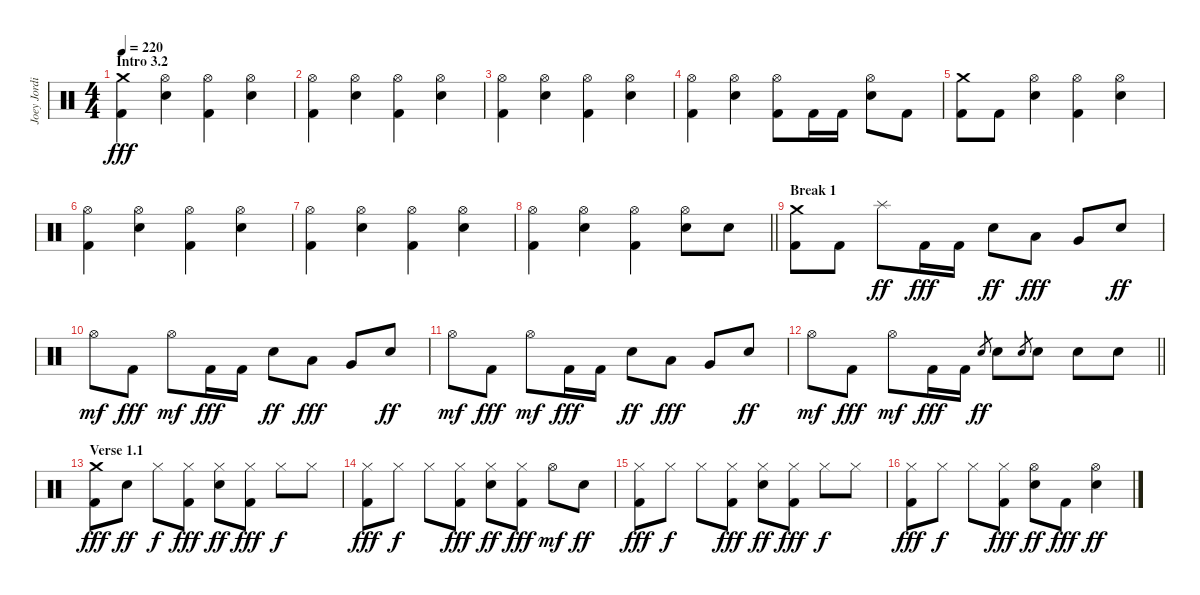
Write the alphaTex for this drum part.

\track ("Joey Jordison" "Joey Jordi") {instrument percussion}
\staff {score}
\articulation defaults
\ts (4 4)
\section ("" "Intro 3.2")
\tempo 220
\clef neutral
\ks c
("Crash medium (hit)" "Kick (hit) 2").4{dy fff} ("Hi-Hat (open)" "Electric Snare (hit)").4 ("Hi-Hat (open)" "Kick (hit) 2").4 ("Hi-Hat (open)" "Electric Snare (hit)").4 |
("Hi-Hat (open)" "Kick (hit) 2").4 ("Hi-Hat (open)" "Electric Snare (hit)").4 ("Hi-Hat (open)" "Kick (hit) 2").4 ("Hi-Hat (open)" "Electric Snare (hit)").4 |
("Hi-Hat (open)" "Kick (hit) 2").4 ("Hi-Hat (open)" "Electric Snare (hit)").4 ("Hi-Hat (open)" "Kick (hit) 2").4 ("Hi-Hat (open)" "Electric Snare (hit)").4 |
("Hi-Hat (open)" "Kick (hit) 2").4 ("Hi-Hat (open)" "Electric Snare (hit)").4 ("Hi-Hat (open)" "Kick (hit) 2").8 "Kick (hit) 2".16 "Kick (hit) 2".16 ("Hi-Hat (open)" "Electric Snare (hit)").8 "Kick (hit) 2".8 |
("Crash medium (hit)" "Kick (hit) 2").8 "Kick (hit) 2".8 ("Hi-Hat (open)" "Electric Snare (hit)").4 ("Hi-Hat (open)" "Kick (hit) 2").4 ("Hi-Hat (open)" "Electric Snare (hit)").4 |
("Hi-Hat (open)" "Kick (hit) 2").4 ("Hi-Hat (open)" "Electric Snare (hit)").4 ("Hi-Hat (open)" "Kick (hit) 2").4 ("Hi-Hat (open)" "Electric Snare (hit)").4 |
("Hi-Hat (open)" "Kick (hit) 2").4 ("Hi-Hat (open)" "Electric Snare (hit)").4 ("Hi-Hat (open)" "Kick (hit) 2").4 ("Hi-Hat (open)" "Electric Snare (hit)").4 |
\barLineRight lightlight
("Hi-Hat (open)" "Kick (hit) 2").4 ("Hi-Hat (open)" "Electric Snare (hit)").4 ("Hi-Hat (open)" "Kick (hit) 2").4 ("Hi-Hat (open)" "Electric Snare (hit)").8 "Electric Snare (hit)".8 |
\section ("" "Break 1")
("Crash medium (hit)" "Kick (hit) 2").8 "Kick (hit) 2".8 "Splash (hit)".8{dy ff} "Kick (hit) 2".16{dy fff} "Kick (hit) 2".16 "Electric Snare (hit)".8{dy ff} "Low Tom (hit)".8{dy fff} "Very Low Tom (hit)".8 "Electric Snare (hit)".8{dy ff} |
"Hi-Hat (open)".8{dy mf} "Kick (hit) 2".8{dy fff} "Hi-Hat (open)".8{dy mf} "Kick (hit) 2".16{dy fff} "Kick (hit) 2".16 "Electric Snare (hit)".8{dy ff} "Low Tom (hit)".8{dy fff} "Very Low Tom (hit)".8 "Electric Snare (hit)".8{dy ff} |
"Hi-Hat (open)".8{dy mf} "Kick (hit) 2".8{dy fff} "Hi-Hat (open)".8{dy mf} "Kick (hit) 2".16{dy fff} "Kick (hit) 2".16 "Electric Snare (hit)".8{dy ff} "Low Tom (hit)".8{dy fff} "Very Low Tom (hit)".8 "Electric Snare (hit)".8{dy ff} |
\barLineRight lightlight "Hi-Hat (open)".8{dy mf} "Kick (hit) 2".8{dy fff} "Hi-Hat (open)".8{dy mf} "Kick (hit) 2".16{dy fff} "Kick (hit) 2".16 "Electric Snare (hit)".8{gr dy ff} "Electric Snare (hit)".8 "Electric Snare (hit)".8{gr} "Electric Snare (hit)".8 "Electric Snare (hit)".8 "Electric Snare (hit)".8
|
\section ("" "Verse 1.1")
("Crash medium (hit)" "Kick (hit) 2").8{dy fff} "Electric Snare (hit)".8{dy ff} "Hi-Hat (closed)".8{dy f} ("Hi-Hat (closed)" "Kick (hit) 2").8{dy fff} ("Hi-Hat (closed)" "Electric Snare (hit)").8{dy ff} ("Hi-Hat (closed)" "Kick (hit) 2").8{dy fff} "Hi-Hat (closed)".8{dy f} "Hi-Hat (closed)".8 |
("Hi-Hat (closed)" "Kick (hit) 2").8{dy fff} "Hi-Hat (closed)".8{dy f} "Hi-Hat (closed)".8 ("Hi-Hat (closed)" "Kick (hit) 2").8{dy fff} ("Hi-Hat (closed)" "Electric Snare (hit)").8{dy ff} ("Hi-Hat (closed)" "Kick (hit) 2").8{dy fff} "Hi-Hat (open)".8{dy mf} "Electric Snare (hit)".8{dy ff} |
("Hi-Hat (closed)" "Kick (hit) 2").8{dy fff} "Hi-Hat (closed)".8{dy f} "Hi-Hat (closed)".8 ("Hi-Hat (closed)" "Kick (hit) 2").8{dy fff} ("Hi-Hat (closed)" "Electric Snare (hit)").8{dy ff} ("Hi-Hat (closed)" "Kick (hit) 2").8{dy fff} "Hi-Hat (closed)".8{dy f} "Hi-Hat (closed)".8 |
("Hi-Hat (closed)" "Kick (hit) 2").8{dy fff} "Hi-Hat (closed)".8{dy f} "Hi-Hat (closed)".8 ("Hi-Hat (closed)" "Kick (hit) 2").8{dy fff} ("Hi-Hat (open)" "Electric Snare (hit)").8{dy ff} "Kick (hit) 2".8{dy fff} ("Hi-Hat (open)" "Electric Snare (hit)").4{dy ff}
